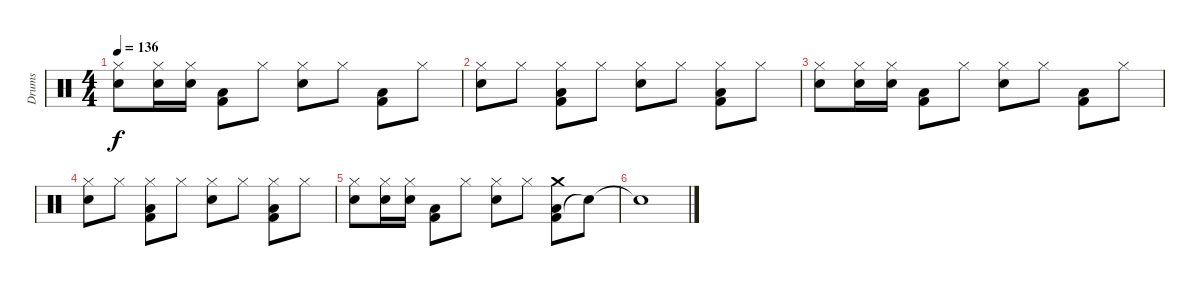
\track ("Drums" "Drums") {instrument percussion}
\staff {score}
\articulation defaults
\ts (4 4)
\tempo 136
\clef neutral
\ks c
("Hi-Hat (closed)" "Snare (hit) 2").8{dy f} ("Hi-Hat (closed)" "Snare (hit) 2").16 ("Hi-Hat (closed)" "Snare (hit) 2").16 ("Kick (hit) 2" "Low Floor Tom (hit)").8 "Hi-Hat (closed)".8 ("Hi-Hat (closed)" "Snare (hit) 2").8 "Hi-Hat (closed)".8 ("Kick (hit) 2" "Low Floor Tom (hit)").8 "Hi-Hat (closed)".8 |
("Hi-Hat (closed)" "Snare (hit) 2").8 "Hi-Hat (closed)".8 ("Kick (hit) 2" "Low Floor Tom (hit)" "Hi-Hat (closed)").8 "Hi-Hat (closed)".8 ("Hi-Hat (closed)" "Snare (hit) 2").8 "Hi-Hat (closed)".8 ("Kick (hit) 2" "Low Floor Tom (hit)" "Hi-Hat (closed)").8 "Hi-Hat (closed)".8 |
("Hi-Hat (closed)" "Snare (hit) 2").8 ("Hi-Hat (closed)" "Snare (hit) 2").16 ("Hi-Hat (closed)" "Snare (hit) 2").16 ("Kick (hit) 2" "Low Floor Tom (hit)").8 "Hi-Hat (closed)".8 ("Hi-Hat (closed)" "Snare (hit) 2").8 "Hi-Hat (closed)".8 ("Kick (hit) 2" "Low Floor Tom (hit)").8 "Hi-Hat (closed)".8 |
("Hi-Hat (closed)" "Snare (hit) 2").8 "Hi-Hat (closed)".8 ("Kick (hit) 2" "Low Floor Tom (hit)" "Hi-Hat (closed)").8 "Hi-Hat (closed)".8 ("Hi-Hat (closed)" "Snare (hit) 2").8 "Hi-Hat (closed)".8 ("Kick (hit) 2" "Low Floor Tom (hit)" "Hi-Hat (closed)").8 "Hi-Hat (closed)".8 |
("Hi-Hat (closed)" "Snare (hit) 2").8 ("Hi-Hat (closed)" "Snare (hit) 2").16 ("Hi-Hat (closed)" "Snare (hit) 2").16 ("Kick (hit) 2" "Low Floor Tom (hit)").8 "Hi-Hat (closed)".8 ("Hi-Hat (closed)" "Snare (hit) 2").8 "Hi-Hat (closed)".8 ("Kick (hit) 2" "Low Floor Tom (hit)" "Crash medium (hit)").8 "Snare (hit)"{t}.8 |
"Snare (hit)"{t}.1
